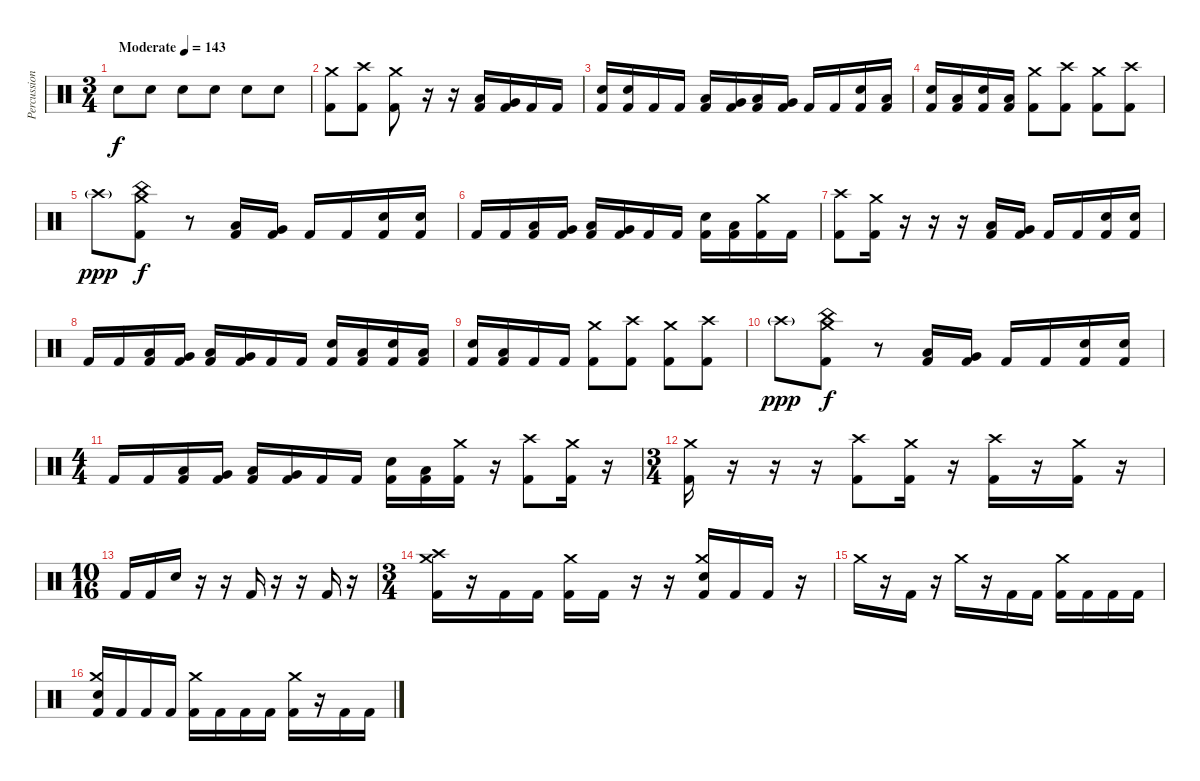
\track ("Percussion" "Percussion") {instrument percussion}
\staff {score}
\articulation defaults
\ts (3 4)
\tempo (143 "Moderate")
\clef neutral
\ks c "Electric Snare (hit)".8{dy f volume 16} "Electric Snare (hit)".8 "Electric Snare (hit)".8 "Electric Snare (hit)".8 "Electric Snare (hit)".8 "Electric Snare (hit)".8
|
("Crash medium (hit)" "Kick (hit) 2").8 ("Crash high (hit)" "Kick (hit) 2").8 ("Crash medium (hit)" "Kick (hit) 2").8 r.16 r.16 ("Low Tom (hit)" "Kick (hit) 2").16 ("Very Low Tom (hit)" "Kick (hit) 2").16 "Kick (hit) 2".16 "Kick (hit) 2".16 |
("Electric Snare (hit)" "Kick (hit) 2").16 ("Electric Snare (hit)" "Kick (hit) 2").16 "Kick (hit) 2".16 "Kick (hit) 2".16 ("Low Tom (hit)" "Kick (hit) 2").16 ("Very Low Tom (hit)" "Kick (hit) 2").16 ("Low Tom (hit)" "Kick (hit) 2").16 ("Very Low Tom (hit)" "Kick (hit) 2").16 "Kick (hit) 2".16 "Kick (hit) 2".16 ("Electric Snare (hit)" "Kick (hit) 2").16 ("Low Tom (hit)" "Kick (hit) 2").16 |
("Electric Snare (hit)" "Kick (hit) 2").16 ("Low Tom (hit)" "Kick (hit) 2").16 ("Electric Snare (hit)" "Kick (hit) 2").16 ("Low Tom (hit)" "Kick (hit) 2").16 ("Crash medium (hit)" "Kick (hit) 2").8 ("Crash high (hit)" "Kick (hit) 2").8 ("Crash medium (hit)" "Kick (hit) 2").8 ("Crash high (hit)" "Kick (hit) 2").8 |
"Crash high (hit)"{g}.8{dy ppp} ("Crash medium (hit)" "China (hit)" "Kick (hit) 2").8{dy f} r.8 ("Low Tom (hit)" "Kick (hit) 2").16 ("Very Low Tom (hit)" "Kick (hit) 2").16 "Kick (hit) 2".16 "Kick (hit) 2".16 ("Electric Snare (hit)" "Kick (hit) 2").16 ("Electric Snare (hit)" "Kick (hit) 2").16 |
"Kick (hit) 2".16 "Kick (hit) 2".16 ("Low Tom (hit)" "Kick (hit) 2").16 ("Very Low Tom (hit)" "Kick (hit) 2").16 ("Low Tom (hit)" "Kick (hit) 2").16 ("Very Low Tom (hit)" "Kick (hit) 2").16 "Kick (hit) 2".16 "Kick (hit) 2".16 ("Electric Snare (hit)" "Kick (hit) 2").16 ("Low Tom (hit)" "Kick (hit) 2").16 ("Crash medium (hit)" "Kick (hit) 2").16 "Kick (hit) 2".16 |
("Crash high (hit)" "Kick (hit) 2").8 ("Crash medium (hit)" "Kick (hit) 2").16 r.16 r.16 r.16 ("Low Tom (hit)" "Kick (hit) 2").16 ("Very Low Tom (hit)" "Kick (hit) 2").16 "Kick (hit) 2".16 "Kick (hit) 2".16 ("Electric Snare (hit)" "Kick (hit) 2").16 ("Electric Snare (hit)" "Kick (hit) 2").16 |
"Kick (hit) 2".16 "Kick (hit) 2".16 ("Low Tom (hit)" "Kick (hit) 2").16 ("Very Low Tom (hit)" "Kick (hit) 2").16 ("Low Tom (hit)" "Kick (hit) 2").16 ("Very Low Tom (hit)" "Kick (hit) 2").16 "Kick (hit) 2".16 "Kick (hit) 2".16 ("Electric Snare (hit)" "Kick (hit) 2").16 ("Low Tom (hit)" "Kick (hit) 2").16 ("Electric Snare (hit)" "Kick (hit) 2").16 ("Low Tom (hit)" "Kick (hit) 2").16 |
("Electric Snare (hit)" "Kick (hit) 2").16 ("Low Tom (hit)" "Kick (hit) 2").16 "Kick (hit) 2".16 "Kick (hit) 2".16 ("Crash medium (hit)" "Kick (hit) 2").8 ("Crash high (hit)" "Kick (hit) 2").8 ("Crash medium (hit)" "Kick (hit) 2").8 ("Crash high (hit)" "Kick (hit) 2").8 |
"Crash high (hit)"{g}.8{dy ppp} ("Crash medium (hit)" "China (hit)" "Kick (hit) 2").8{dy f} r.8 ("Low Tom (hit)" "Kick (hit) 2").16 ("Very Low Tom (hit)" "Kick (hit) 2").16 "Kick (hit) 2".16 "Kick (hit) 2".16 ("Electric Snare (hit)" "Kick (hit) 2").16 ("Electric Snare (hit)" "Kick (hit) 2").16 |
\ts (4 4)
"Kick (hit) 2".16 "Kick (hit) 2".16 ("Low Tom (hit)" "Kick (hit) 2").16 ("Very Low Tom (hit)" "Kick (hit) 2").16 ("Low Tom (hit)" "Kick (hit) 2").16 ("Very Low Tom (hit)" "Kick (hit) 2").16 "Kick (hit) 2".16 "Kick (hit) 2".16 ("Electric Snare (hit)" "Kick (hit) 2").16 ("Low Tom (hit)" "Kick (hit) 2").16 ("Crash medium (hit)" "Kick (hit) 2").16 r.16 ("Crash high (hit)" "Kick (hit) 2").8 ("Crash medium (hit)" "Kick (hit) 2").16 r.16 |
\ts (3 4)
("Crash medium (hit)" "Kick (hit) 2").16 r.16 r.16 r.16 ("Crash high (hit)" "Kick (hit) 2").8 ("Crash medium (hit)" "Kick (hit) 2").16 r.16 ("Crash high (hit)" "Kick (hit) 2").16 r.16 ("Crash medium (hit)" "Kick (hit) 2").16 r.16 |
\ts (10 16)
"Kick (hit) 2".16 "Kick (hit) 2".16 "Electric Snare (hit)".16 r.16 r.16 "Kick (hit) 2".16 r.16 r.16 "Kick (hit) 2".16 r.16 |
\ts (3 4)
("Crash medium (hit)" "Crash high (hit)" "Kick (hit) 2").16 r.16 "Kick (hit) 2".16 "Kick (hit) 2".16 ("Crash medium (hit)" "Kick (hit) 2").16 "Kick (hit) 2".16 r.16 r.16 ("Crash medium (hit)" "Electric Snare (hit)" "Kick (hit) 2").16 "Kick (hit) 2".16 "Kick (hit) 2".16 r.16 |
"Crash medium (hit)".16 r.16 "Kick (hit) 2".16 r.16 "Crash medium (hit)".16 r.16 "Kick (hit) 2".16 "Kick (hit) 2".16 ("Crash medium (hit)" "Kick (hit) 2").16 "Kick (hit) 2".16 "Kick (hit) 2".16 "Kick (hit) 2".16 |
("Crash medium (hit)" "Electric Snare (hit)" "Kick (hit) 2").16 "Kick (hit) 2".16 "Kick (hit) 2".16 "Kick (hit) 2".16 ("Crash medium (hit)" "Kick (hit) 2").16 "Kick (hit) 2".16 "Kick (hit) 2".16 "Kick (hit) 2".16 ("Crash medium (hit)" "Kick (hit) 2").16 r.16 "Kick (hit) 2".16 "Kick (hit) 2".16
